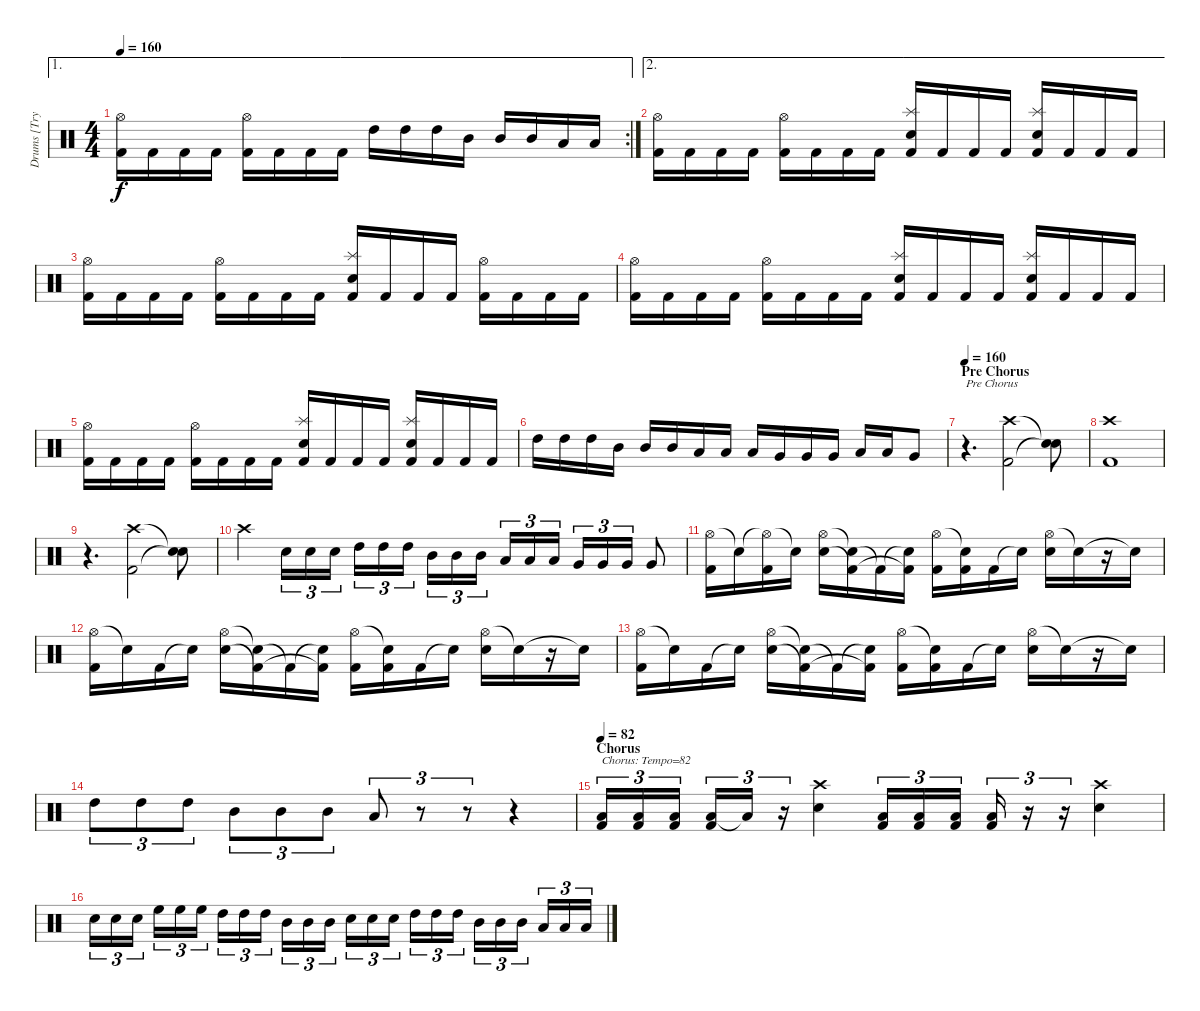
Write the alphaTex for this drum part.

\track ("Drums [Trym]" "Drums [Try") {instrument percussion}
\staff {score}
\articulation defaults
\ae 1
\rc 2
\ts (4 4)
\tempo 160
\clef neutral
\ks c
("Hi-Hat (open)" "Kick (hit) 2").16{dy f} "Kick (hit) 2".16 "Kick (hit) 2".16 "Kick (hit) 2".16 ("Hi-Hat (open)" "Kick (hit) 2").16 "Kick (hit) 2".16 "Kick (hit) 2".16 "Kick (hit) 2".16 "High Tom (hit)".16 "High Tom (hit)".16 "High Tom (hit)".16 "Mid Tom (hit)".16 "Mid Tom (hit)".16 "Mid Tom (hit)".16 "Low Tom (hit)".16 "Low Tom (hit)".16 |
\ae 2
("Hi-Hat (open)" "Kick (hit) 2").16 "Kick (hit) 2".16 "Kick (hit) 2".16 "Kick (hit) 2".16 ("Hi-Hat (open)" "Kick (hit) 2").16 "Kick (hit) 2".16 "Kick (hit) 2".16 "Kick (hit) 2".16 ("Splash (hit)" "Electric Snare (hit)" "Kick (hit) 2").16 "Kick (hit) 2".16 "Kick (hit) 2".16 "Kick (hit) 2".16 ("Splash (hit)" "Electric Snare (hit)" "Kick (hit) 2").16 "Kick (hit) 2".16 "Kick (hit) 2".16 "Kick (hit) 2".16 |
("Hi-Hat (open)" "Kick (hit) 2").16 "Kick (hit) 2".16 "Kick (hit) 2".16 "Kick (hit) 2".16 ("Hi-Hat (open)" "Kick (hit) 2").16 "Kick (hit) 2".16 "Kick (hit) 2".16 "Kick (hit) 2".16 ("Splash (hit)" "Electric Snare (hit)" "Kick (hit) 2").16 "Kick (hit) 2".16 "Kick (hit) 2".16 "Kick (hit) 2".16 ("Hi-Hat (open)" "Kick (hit) 2").16 "Kick (hit) 2".16 "Kick (hit) 2".16 "Kick (hit) 2".16 |
("Hi-Hat (open)" "Kick (hit) 2").16 "Kick (hit) 2".16 "Kick (hit) 2".16 "Kick (hit) 2".16 ("Hi-Hat (open)" "Kick (hit) 2").16 "Kick (hit) 2".16 "Kick (hit) 2".16 "Kick (hit) 2".16 ("Splash (hit)" "Electric Snare (hit)" "Kick (hit) 2").16 "Kick (hit) 2".16 "Kick (hit) 2".16 "Kick (hit) 2".16 ("Splash (hit)" "Electric Snare (hit)" "Kick (hit) 2").16 "Kick (hit) 2".16 "Kick (hit) 2".16 "Kick (hit) 2".16 |
("Hi-Hat (open)" "Kick (hit) 2").16 "Kick (hit) 2".16 "Kick (hit) 2".16 "Kick (hit) 2".16 ("Hi-Hat (open)" "Kick (hit) 2").16 "Kick (hit) 2".16 "Kick (hit) 2".16 "Kick (hit) 2".16 ("Splash (hit)" "Electric Snare (hit)" "Kick (hit) 2").16 "Kick (hit) 2".16 "Kick (hit) 2".16 "Kick (hit) 2".16 ("Splash (hit)" "Electric Snare (hit)" "Kick (hit) 2").16 "Kick (hit) 2".16 "Kick (hit) 2".16 "Kick (hit) 2".16 |
"High Tom (hit)".16 "High Tom (hit)".16 "High Tom (hit)".16 "Mid Tom (hit)".16 "Mid Tom (hit)".16 "Mid Tom (hit)".16 "Low Tom (hit)".16 "Low Tom (hit)".16 "Low Tom (hit)".16 "Very Low Tom (hit)".16 "Very Low Tom (hit)".16 "Very Low Tom (hit)".16 "Low Tom (hit)".16 "Low Tom (hit)".16 "Very Low Tom (hit)".8 |
\section ("" "Pre Chorus")
\tempo 160
r.4{d txt "Pre Chorus"} ("Crash high (hit)" "Kick (hit) 2").2 ("Snare (hit)"{t} "Snare (hit)"{t}).8 |
("Crash high (hit)" "Kick (hit) 2").1 |
r.4{d} ("Crash high (hit)" "Kick (hit) 2").2 ("Snare (hit)"{t} "Snare (hit)"{t}).8 |
"Crash high (hit)".4 "Electric Snare (hit)".16{tu (3 2)} "Electric Snare (hit)".16{tu (3 2)} "Electric Snare (hit)".16{tu (3 2)} "High Tom (hit)".16{tu (3 2)} "High Tom (hit)".16{tu (3 2)} "High Tom (hit)".16{tu (3 2)} "Mid Tom (hit)".16{tu (3 2)} "Mid Tom (hit)".16{tu (3 2)} "Mid Tom (hit)".16{tu (3 2)} "Low Tom (hit)".16{tu (3 2)} "Low Tom (hit)".16{tu (3 2)} "Low Tom (hit)".16{tu (3 2)} "Very Low Tom (hit)".16{tu (3 2)} "Very Low Tom (hit)".16{tu (3 2)} "Very Low Tom (hit)".16{tu (3 2)} "Very Low Tom (hit)".8 |
("Hi-Hat (open)" "Kick (hit) 2").16 "Snare (hit)"{t}.16 ("Hi-Hat (open)"{t} "Kick (hit) 2").16 "Snare (hit)"{t}.16 ("Hi-Hat (open)" "Electric Snare (hit)").16 ("Snare (hit)"{t} "Kick (hit) 2"{t}).16 "Kick (hit) 2"{t}.16 ("Snare (hit)"{t} "Kick (hit) 2"{t}).16 ("Hi-Hat (open)" "Kick (hit) 2").16 ("Snare (hit)"{t} "Kick (hit) 2").16 "Kick (hit) 2".16 "Snare (hit)"{t}.16 ("Hi-Hat (open)" "Electric Snare (hit)").16 "Snare (hit)"{t}.16 r.16 "Snare (hit)"{t}.16 |
("Hi-Hat (open)" "Kick (hit) 2").16 "Snare (hit)"{t}.16 "Kick (hit) 2".16 "Snare (hit)"{t}.16 ("Hi-Hat (open)" "Electric Snare (hit)").16 ("Snare (hit)"{t} "Kick (hit) 2"{t}).16 "Kick (hit) 2"{t}.16 ("Snare (hit)"{t} "Kick (hit) 2"{t}).16 ("Hi-Hat (open)" "Kick (hit) 2").16 ("Snare (hit)"{t} "Kick (hit) 2").16 "Kick (hit) 2".16 "Snare (hit)"{t}.16 ("Hi-Hat (open)" "Electric Snare (hit)").16 "Snare (hit)"{t}.16 r.16 "Snare (hit)"{t}.16 |
("Hi-Hat (open)" "Kick (hit) 2").16 "Snare (hit)"{t}.16 "Kick (hit) 2".16 "Snare (hit)"{t}.16 ("Hi-Hat (open)" "Electric Snare (hit)").16 ("Snare (hit)"{t} "Kick (hit) 2"{t}).16 "Kick (hit) 2"{t}.16 ("Snare (hit)"{t} "Kick (hit) 2"{t}).16 ("Hi-Hat (open)" "Kick (hit) 2").16 ("Snare (hit)"{t} "Kick (hit) 2").16 "Kick (hit) 2".16 "Snare (hit)"{t}.16 ("Hi-Hat (open)" "Electric Snare (hit)").16 "Snare (hit)"{t}.16 r.16 "Snare (hit)"{t}.16 |
"High Tom (hit)".8{tu (3 2)} "High Tom (hit)".8{tu (3 2)} "High Tom (hit)".8{tu (3 2)} "Mid Tom (hit)".8{tu (3 2)} "Mid Tom (hit)".8{tu (3 2)} "Mid Tom (hit)".8{tu (3 2)} "Low Tom (hit)".8{tu (3 2)} r.8{tu (3 2)} r.8{tu (3 2)} r.4 |
\section ("" "Chorus")
\tempo 82
("Low Tom (hit)" "Kick (hit) 2").16{tu (3 2) txt "Chorus: Tempo=82"} ("Low Tom (hit)" "Kick (hit) 2").16{tu (3 2)} ("Low Tom (hit)" "Kick (hit) 2").16{tu (3 2)} ("Low Tom (hit)" "Kick (hit) 2").16{tu (3 2)} "Low Tom (hit)"{t}.16{tu (3 2)} r.16{tu (3 2)} ("Crash high (hit)" "Electric Snare (hit)").4 ("Low Tom (hit)" "Kick (hit) 2").16{tu (3 2)} ("Low Tom (hit)" "Kick (hit) 2").16{tu (3 2)} ("Low Tom (hit)" "Kick (hit) 2").16{tu (3 2)} ("Low Tom (hit)" "Kick (hit) 2").16{tu (3 2)} r.16{tu (3 2)} r.16{tu (3 2)} ("Crash high (hit)" "Electric Snare (hit)").4 |
"Electric Snare (hit)".16{tu (3 2)} "Electric Snare (hit)".16{tu (3 2)} "Electric Snare (hit)".16{tu (3 2)} "High Floor Tom (hit)".16{tu (3 2)} "High Floor Tom (hit)".16{tu (3 2)} "High Floor Tom (hit)".16{tu (3 2)} "High Tom (hit)".16{tu (3 2)} "High Tom (hit)".16{tu (3 2)} "High Tom (hit)".16{tu (3 2)} "Mid Tom (hit)".16{tu (3 2)} "Mid Tom (hit)".16{tu (3 2)} "Mid Tom (hit)".16{tu (3 2)} "Electric Snare (hit)".16{tu (3 2)} "Electric Snare (hit)".16{tu (3 2)} "Electric Snare (hit)".16{tu (3 2)} "High Tom (hit)".16{tu (3 2)} "High Tom (hit)".16{tu (3 2)} "High Tom (hit)".16{tu (3 2)} "Mid Tom (hit)".16{tu (3 2)} "Mid Tom (hit)".16{tu (3 2)} "Mid Tom (hit)".16{tu (3 2)} "Low Tom (hit)".16{tu (3 2)} "Low Tom (hit)".16{tu (3 2)} "Low Tom (hit)".16{tu (3 2)}
